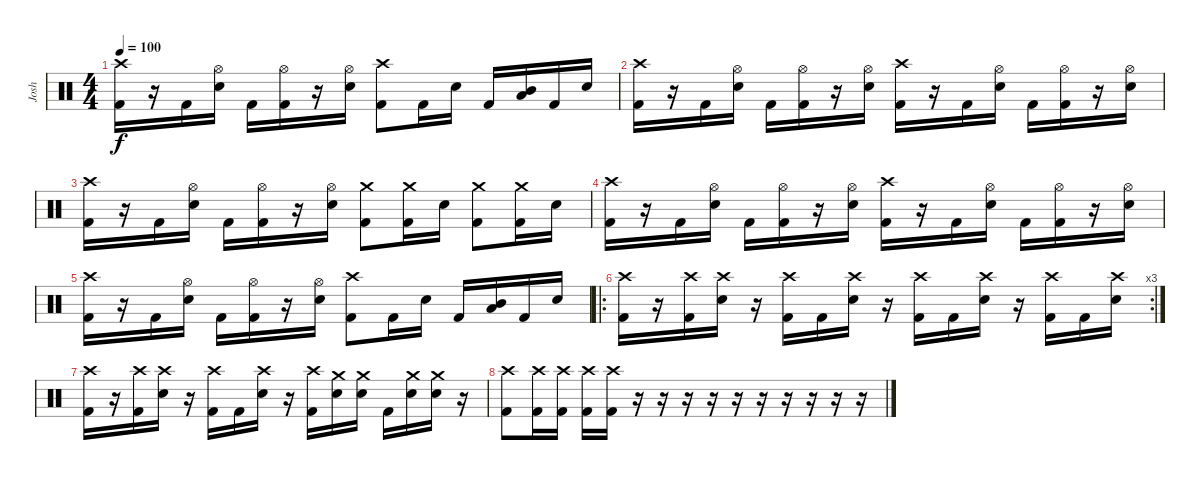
\track ("Josh" "Josh") {instrument percussion}
\staff {score}
\articulation defaults
\ts (4 4)
\tempo 100
\clef neutral
\ks c
("Crash high (hit)" "Kick (hit) 2").16{dy f} r.16 "Kick (hit) 2".16 ("Hi-Hat (open)" "Snare (hit) 2").16 "Kick (hit) 2".16 ("Hi-Hat (open)" "Kick (hit) 2").16 r.16 ("Hi-Hat (open)" "Snare (hit) 2").16 ("Crash high (hit)" "Kick (hit) 2").8 "Kick (hit) 2".16 "Snare (hit) 2".16 "Kick (hit) 2".16 ("Mid Tom (hit)" "Low Tom (hit)").16 "Kick (hit) 2".16 "Snare (hit) 2".16 |
("Crash high (hit)" "Kick (hit) 2").16 r.16 "Kick (hit) 2".16 ("Hi-Hat (open)" "Snare (hit) 2").16 "Kick (hit) 2".16 ("Hi-Hat (open)" "Kick (hit) 2").16 r.16 ("Hi-Hat (open)" "Snare (hit) 2").16 ("Crash high (hit)" "Kick (hit) 2").16 r.16 "Kick (hit) 2".16 ("Hi-Hat (open)" "Snare (hit) 2").16 "Kick (hit) 2".16 ("Hi-Hat (open)" "Kick (hit) 2").16 r.16 ("Hi-Hat (open)" "Snare (hit) 2").16 |
("Crash high (hit)" "Kick (hit) 2").16 r.16 "Kick (hit) 2".16 ("Hi-Hat (open)" "Snare (hit) 2").16 "Kick (hit) 2".16 ("Hi-Hat (open)" "Kick (hit) 2").16 r.16 ("Hi-Hat (open)" "Snare (hit) 2").16 ("Crash medium (hit)" "Kick (hit) 2").8 ("Crash medium (hit)" "Kick (hit) 2").16 "Snare (hit) 2".16 ("Crash medium (hit)" "Kick (hit) 2").8 ("Crash medium (hit)" "Kick (hit) 2").16 "Snare (hit) 2".16 |
("Crash high (hit)" "Kick (hit) 2").16 r.16 "Kick (hit) 2".16 ("Hi-Hat (open)" "Snare (hit) 2").16 "Kick (hit) 2".16 ("Hi-Hat (open)" "Kick (hit) 2").16 r.16 ("Hi-Hat (open)" "Snare (hit) 2").16 ("Crash high (hit)" "Kick (hit) 2").16 r.16 "Kick (hit) 2".16 ("Hi-Hat (open)" "Snare (hit) 2").16 "Kick (hit) 2".16 ("Hi-Hat (open)" "Kick (hit) 2").16 r.16 ("Hi-Hat (open)" "Snare (hit) 2").16 |
("Crash high (hit)" "Kick (hit) 2").16 r.16 "Kick (hit) 2".16 ("Hi-Hat (open)" "Snare (hit) 2").16 "Kick (hit) 2".16 ("Hi-Hat (open)" "Kick (hit) 2").16 r.16 ("Hi-Hat (open)" "Snare (hit) 2").16 ("Crash high (hit)" "Kick (hit) 2").8 "Kick (hit) 2".16 "Snare (hit) 2".16 "Kick (hit) 2".16 ("Mid Tom (hit)" "Low Tom (hit)").16 "Kick (hit) 2".16 "Snare (hit) 2".16 |
\ro
\rc 3
("Crash high (hit)" "Kick (hit) 2").16 r.16 ("Crash high (hit)" "Kick (hit) 2").16 ("Crash high (hit)" "Snare (hit) 2").16 r.16 ("Crash high (hit)" "Kick (hit) 2").16 "Kick (hit) 2".16 ("Crash high (hit)" "Snare (hit) 2").16 r.16 ("Crash high (hit)" "Kick (hit) 2").16 "Kick (hit) 2".16 ("Crash high (hit)" "Snare (hit) 2").16 r.16 ("Crash high (hit)" "Kick (hit) 2").16 "Kick (hit) 2".16 ("Crash high (hit)" "Snare (hit) 2").16 |
("Crash high (hit)" "Kick (hit) 2").16 r.16 ("Crash high (hit)" "Kick (hit) 2").16 ("Crash high (hit)" "Snare (hit) 2").16 r.16 ("Crash high (hit)" "Kick (hit) 2").16 "Kick (hit) 2".16 ("Crash high (hit)" "Snare (hit) 2").16 r.16 ("Crash high (hit)" "Kick (hit) 2").16 ("Crash medium (hit)" "Snare (hit) 2").16 ("Crash medium (hit)" "Snare (hit) 2").16 "Kick (hit) 2".16 ("Crash medium (hit)" "Snare (hit) 2").16 ("Crash medium (hit)" "Snare (hit) 2").16 r.16 |
("Crash high (hit)" "Kick (hit) 2").8 ("Crash high (hit)" "Kick (hit) 2").16 ("Crash high (hit)" "Kick (hit) 2").16 ("Crash high (hit)" "Kick (hit) 2").16 ("Crash high (hit)" "Kick (hit) 2").16 r.16 r.16 r.16 r.16 r.16 r.16 r.16 r.16 r.16 r.16
